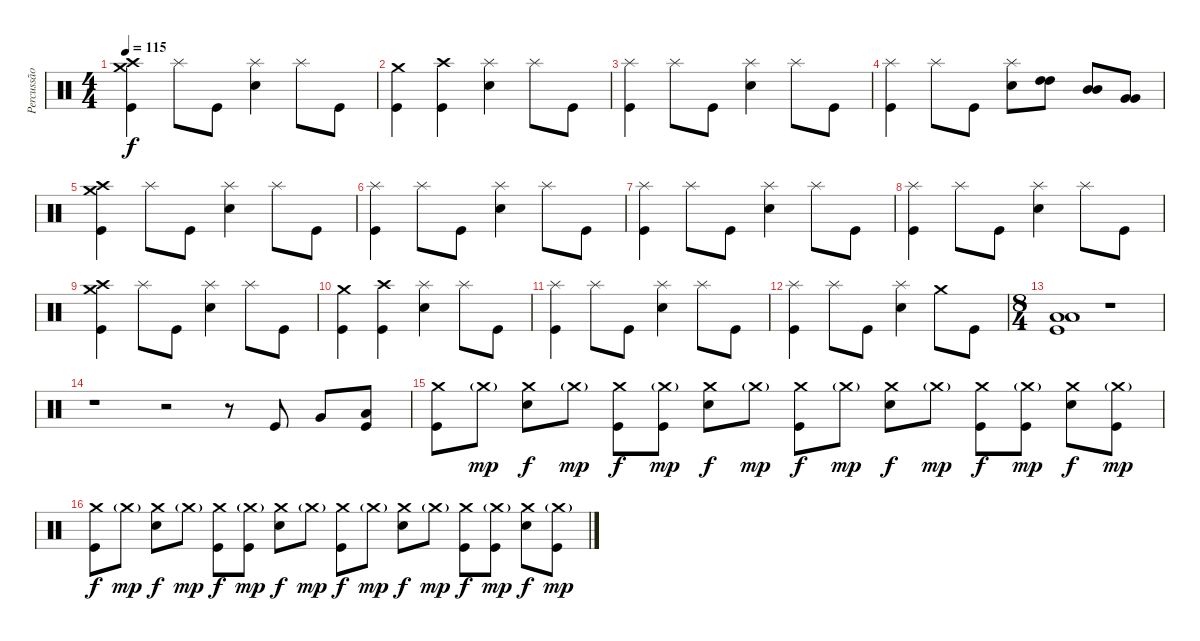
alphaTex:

\track ("Percussão" "Percussão") {instrument percussion}
\staff {score}
\articulation defaults
\ts (4 4)
\tempo 115
\clef neutral
\ks c
("Crash medium (hit)" "Crash high (hit)" "Kick (hit)").4{dy f} "Splash (hit)".8 "Kick (hit)".8 ("Splash (hit)" "Electric Snare (hit)").4 "Splash (hit)".8 "Kick (hit)".8 |
("Crash medium (hit)" "Kick (hit)").4 ("Crash high (hit)" "Kick (hit)").4 ("Splash (hit)" "Electric Snare (hit)").4 "Splash (hit)".8 "Kick (hit)".8 |
("Splash (hit)" "Kick (hit)").4 "Splash (hit)".8 "Kick (hit)".8 ("Splash (hit)" "Electric Snare (hit)").4 "Splash (hit)".8 "Kick (hit)".8 |
("Splash (hit)" "Kick (hit)").4 "Splash (hit)".8 "Kick (hit)".8 ("Splash (hit)" "Electric Snare (hit)").8 ("High Tom (hit)" "High Tom (hit)").8 ("Mid Tom (hit)" "Mid Tom (hit)").8 ("Very Low Tom (hit)" "Very Low Tom (hit)").8 |
("Crash medium (hit)" "Crash high (hit)" "Kick (hit)").4 "Splash (hit)".8 "Kick (hit)".8 ("Splash (hit)" "Electric Snare (hit)").4 "Splash (hit)".8 "Kick (hit)".8 |
("Splash (hit)" "Kick (hit)").4 "Splash (hit)".8 "Kick (hit)".8 ("Splash (hit)" "Electric Snare (hit)").4 "Splash (hit)".8 "Kick (hit)".8 |
("Splash (hit)" "Kick (hit)").4 "Splash (hit)".8 "Kick (hit)".8 ("Splash (hit)" "Electric Snare (hit)").4 "Splash (hit)".8 "Kick (hit)".8 |
("Splash (hit)" "Kick (hit)").4 "Splash (hit)".8 "Kick (hit)".8 ("Splash (hit)" "Electric Snare (hit)").4 "Splash (hit)".8 "Kick (hit)".8 |
("Crash medium (hit)" "Crash high (hit)" "Kick (hit)").4 "Splash (hit)".8 "Kick (hit)".8 ("Splash (hit)" "Electric Snare (hit)").4 "Splash (hit)".8 "Kick (hit)".8 |
("Crash medium (hit)" "Kick (hit)").4 ("Crash high (hit)" "Kick (hit)").4 ("Splash (hit)" "Electric Snare (hit)").4 "Splash (hit)".8 "Kick (hit)".8 |
("Splash (hit)" "Kick (hit)").4 "Splash (hit)".8 "Kick (hit)".8 ("Splash (hit)" "Electric Snare (hit)").4 "Splash (hit)".8 "Kick (hit)".8 |
("Splash (hit)" "Kick (hit)").4 "Splash (hit)".8 "Kick (hit)".8 ("Splash (hit)" "Electric Snare (hit)").4 "Crash medium (hit)".8 "Kick (hit)".8 |
\ts (8 4)
("Low Floor Tom (hit)" "Low Floor Tom (hit)" "Kick (hit)").1 r.1 |
r.1 r.2 r.8 "Kick (hit)".8 "Very Low Tom (hit)".8 ("Low Floor Tom (hit)" "Kick (hit)").8 |
("Crash medium (hit)" "Kick (hit)").8 "Crash medium (hit)"{g}.8{dy mp} ("Crash medium (hit)" "Electric Snare (hit)").8{dy f} "Crash medium (hit)"{g}.8{dy mp} ("Crash medium (hit)" "Kick (hit)").8{dy f} ("Crash medium (hit)"{g} "Kick (hit)").8{dy mp} ("Crash medium (hit)" "Electric Snare (hit)").8{dy f} "Crash medium (hit)"{g}.8{dy mp} ("Crash medium (hit)" "Kick (hit)").8{dy f} "Crash medium (hit)"{g}.8{dy mp} ("Crash medium (hit)" "Electric Snare (hit)").8{dy f} "Crash medium (hit)"{g}.8{dy mp} ("Crash medium (hit)" "Kick (hit)").8{dy f} ("Crash medium (hit)"{g} "Kick (hit)").8{dy mp} ("Crash medium (hit)" "Electric Snare (hit)").8{dy f} ("Crash medium (hit)"{g} "Kick (hit)").8{dy mp} |
("Crash medium (hit)" "Kick (hit)").8{dy f} "Crash medium (hit)"{g}.8{dy mp} ("Crash medium (hit)" "Electric Snare (hit)").8{dy f} "Crash medium (hit)"{g}.8{dy mp} ("Crash medium (hit)" "Kick (hit)").8{dy f} ("Crash medium (hit)"{g} "Kick (hit)").8{dy mp} ("Crash medium (hit)" "Electric Snare (hit)").8{dy f} "Crash medium (hit)"{g}.8{dy mp} ("Crash medium (hit)" "Kick (hit)").8{dy f} "Crash medium (hit)"{g}.8{dy mp} ("Crash medium (hit)" "Electric Snare (hit)").8{dy f} "Crash medium (hit)"{g}.8{dy mp} ("Crash medium (hit)" "Kick (hit)").8{dy f} ("Crash medium (hit)"{g} "Kick (hit)").8{dy mp} ("Crash medium (hit)" "Electric Snare (hit)").8{dy f} ("Crash medium (hit)"{g} "Kick (hit)").8{dy mp}
